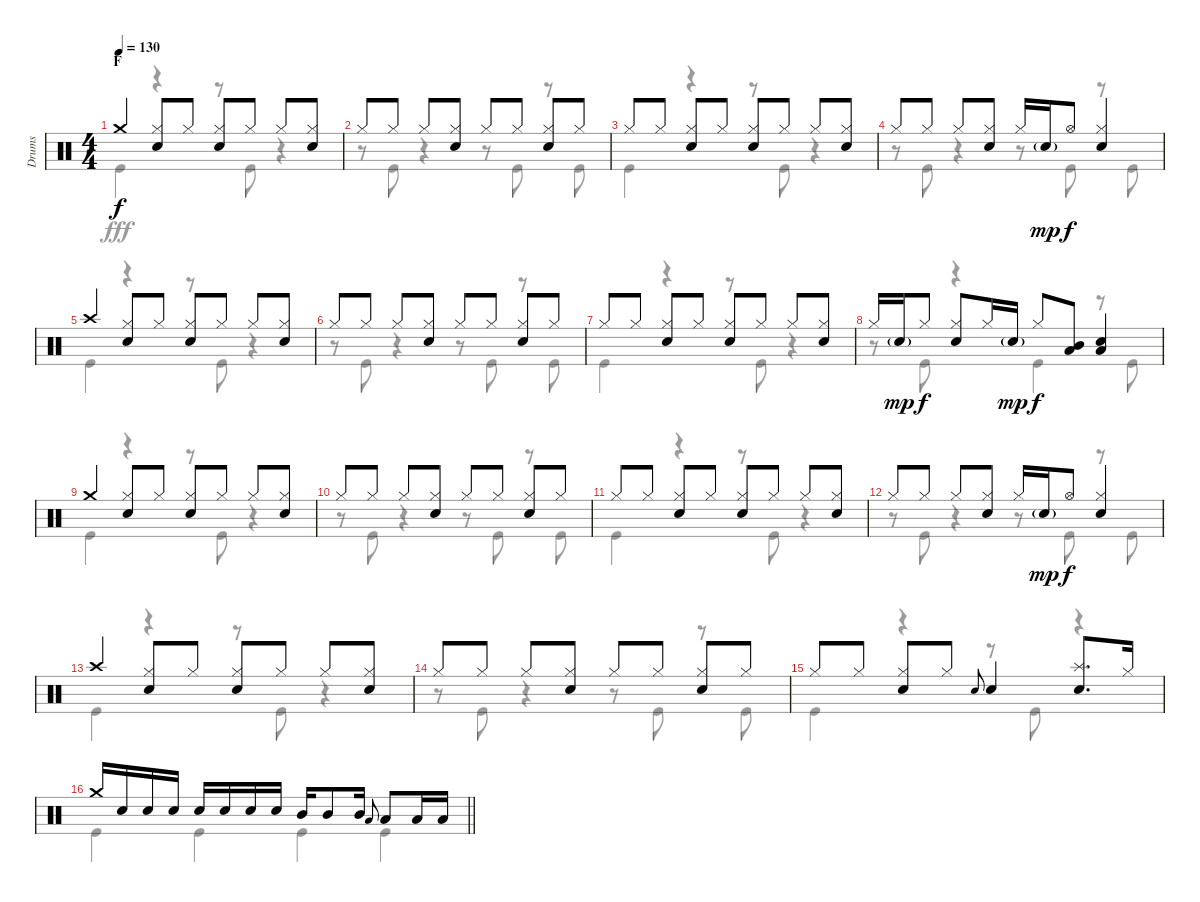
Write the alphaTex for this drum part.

\track ("Drums" "Drums") {instrument percussion}
\staff {score}
\articulation defaults
\voice
\ts (4 4)
\section ("" "F")
\tempo 130
\clef neutral
\ks c "Crash medium (hit)".4{dy f}
("Hi-Hat (closed)" "Snare (hit) 2").8 "Hi-Hat (closed)".8 ("Hi-Hat (closed)" "Snare (hit) 2").8 "Hi-Hat (closed)".8 "Hi-Hat (closed)".8 ("Hi-Hat (closed)" "Snare (hit) 2").8 |
"Hi-Hat (closed)".8 "Hi-Hat (closed)".8 "Hi-Hat (closed)".8 ("Hi-Hat (closed)" "Snare (hit) 2").8 "Hi-Hat (closed)".8 "Hi-Hat (closed)".8 ("Hi-Hat (closed)" "Snare (hit) 2").8 "Hi-Hat (closed)".8 |
"Hi-Hat (closed)".8 "Hi-Hat (closed)".8 ("Hi-Hat (closed)" "Snare (hit) 2").8 "Hi-Hat (closed)".8 ("Hi-Hat (closed)" "Snare (hit) 2").8 "Hi-Hat (closed)".8 "Hi-Hat (closed)".8 ("Hi-Hat (closed)" "Snare (hit) 2").8 |
"Hi-Hat (closed)".8 "Hi-Hat (closed)".8 "Hi-Hat (closed)".8 ("Hi-Hat (closed)" "Snare (hit) 2").8 "Hi-Hat (closed)".16 "Snare (hit) 2"{g}.16{dy mp} "Hi-Hat (open)".8{dy f} ("Hi-Hat (closed)" "Snare (hit) 2").4 |
"Crash high (hit)".4 ("Hi-Hat (closed)" "Snare (hit) 2").8 "Hi-Hat (closed)".8 ("Hi-Hat (closed)" "Snare (hit) 2").8 "Hi-Hat (closed)".8 "Hi-Hat (closed)".8 ("Hi-Hat (closed)" "Snare (hit) 2").8 |
"Hi-Hat (closed)".8 "Hi-Hat (closed)".8 "Hi-Hat (closed)".8 ("Hi-Hat (closed)" "Snare (hit) 2").8 "Hi-Hat (closed)".8 "Hi-Hat (closed)".8 ("Hi-Hat (closed)" "Snare (hit) 2").8 "Hi-Hat (closed)".8 |
"Hi-Hat (closed)".8 "Hi-Hat (closed)".8 ("Hi-Hat (closed)" "Snare (hit) 2").8 "Hi-Hat (closed)".8 ("Hi-Hat (closed)" "Snare (hit) 2").8 "Hi-Hat (closed)".8 "Hi-Hat (closed)".8 ("Hi-Hat (closed)" "Snare (hit) 2").8 |
"Hi-Hat (closed)".16 "Snare (hit) 2"{g}.16{dy mp} "Hi-Hat (closed)".8{dy f} ("Hi-Hat (closed)" "Snare (hit) 2").8 "Hi-Hat (closed)".16 "Snare (hit) 2"{g}.16{dy mp} "Hi-Hat (closed)".8{dy f} ("Mid Tom (hit)" "Low Tom (hit)").8 ("Low Tom (hit)" "Snare (hit) 2").4 |
"Crash medium (hit)".4 ("Hi-Hat (closed)" "Snare (hit) 2").8 "Hi-Hat (closed)".8 ("Hi-Hat (closed)" "Snare (hit) 2").8 "Hi-Hat (closed)".8 "Hi-Hat (closed)".8 ("Hi-Hat (closed)" "Snare (hit) 2").8 |
"Hi-Hat (closed)".8 "Hi-Hat (closed)".8 "Hi-Hat (closed)".8 ("Hi-Hat (closed)" "Snare (hit) 2").8 "Hi-Hat (closed)".8 "Hi-Hat (closed)".8 ("Hi-Hat (closed)" "Snare (hit) 2").8 "Hi-Hat (closed)".8 |
"Hi-Hat (closed)".8 "Hi-Hat (closed)".8 ("Hi-Hat (closed)" "Snare (hit) 2").8 "Hi-Hat (closed)".8 ("Hi-Hat (closed)" "Snare (hit) 2").8 "Hi-Hat (closed)".8 "Hi-Hat (closed)".8 ("Hi-Hat (closed)" "Snare (hit) 2").8 |
"Hi-Hat (closed)".8 "Hi-Hat (closed)".8 "Hi-Hat (closed)".8 ("Hi-Hat (closed)" "Snare (hit) 2").8 "Hi-Hat (closed)".16 "Snare (hit) 2"{g}.16{dy mp} "Hi-Hat (open)".8{dy f} ("Hi-Hat (closed)" "Snare (hit) 2").4 |
"Crash high (hit)".4 ("Hi-Hat (closed)" "Snare (hit) 2").8 "Hi-Hat (closed)".8 ("Hi-Hat (closed)" "Snare (hit) 2").8 "Hi-Hat (closed)".8 "Hi-Hat (closed)".8 ("Hi-Hat (closed)" "Snare (hit) 2").8 |
"Hi-Hat (closed)".8 "Hi-Hat (closed)".8 "Hi-Hat (closed)".8 ("Hi-Hat (closed)" "Snare (hit) 2").8 "Hi-Hat (closed)".8 "Hi-Hat (closed)".8 ("Hi-Hat (closed)" "Snare (hit) 2").8 "Hi-Hat (closed)".8 |
"Hi-Hat (closed)".8 "Hi-Hat (closed)".8 ("Hi-Hat (closed)" "Snare (hit) 2").8 "Hi-Hat (closed)".8 "Snare (hit) 2".8{gr onbeat} "Snare (hit) 2".4 ("Splash (hit)" "Snare (hit) 2").8{d} "Hi-Hat (closed)".16 |
\barLineRight lightlight "Crash medium (hit)".16 "Snare (hit) 2".16 "Snare (hit) 2".16 "Snare (hit) 2".16 "Snare (hit) 2".16 "Snare (hit) 2".16 "Snare (hit) 2".16 "Snare (hit) 2".16 "Mid Tom (hit)".16 "Mid Tom (hit)".8 "Mid Tom (hit)".16 "Low Tom (hit)".8{gr onbeat} "Low Tom (hit)".8 "Low Tom (hit)".16 "Low Tom (hit)".16
\voice
\clef neutral
\ottava regular
\simile none
\ks c "Kick (hit)".4{dy fff}
r.4 r.8 "Kick (hit)".8 r.4 |
r.8 "Kick (hit)".8 r.4 r.8 "Kick (hit)".8 r.8 "Kick (hit)".8 |
"Kick (hit)".4 r.4 r.8 "Kick (hit)".8 r.4 |
r.8 "Kick (hit)".8 r.4 r.8 "Kick (hit)".8 r.8 "Kick (hit)".8 |
"Kick (hit)".4 r.4 r.8 "Kick (hit)".8 r.4 |
r.8 "Kick (hit)".8 r.4 r.8 "Kick (hit)".8 r.8 "Kick (hit)".8 |
"Kick (hit)".4 r.4 r.8 "Kick (hit)".8 r.4 |
r.8 "Kick (hit)".8 r.4 "Kick (hit)".4 r.8 "Kick (hit)".8 |
"Kick (hit)".4 r.4 r.8 "Kick (hit)".8 r.4 |
r.8 "Kick (hit)".8 r.4 r.8 "Kick (hit)".8 r.8 "Kick (hit)".8 |
"Kick (hit)".4 r.4 r.8 "Kick (hit)".8 r.4 |
r.8 "Kick (hit)".8 r.4 r.8 "Kick (hit)".8 r.8 "Kick (hit)".8 |
"Kick (hit)".4 r.4 r.8 "Kick (hit)".8 r.4 |
r.8 "Kick (hit)".8 r.4 r.8 "Kick (hit)".8 r.8 "Kick (hit)".8 |
"Kick (hit)".4 r.4 r.8 "Kick (hit)".8 r.4 |
\barLineRight lightlight "Kick (hit)".4 "Kick (hit)".4 "Kick (hit)".4 "Kick (hit)".4
